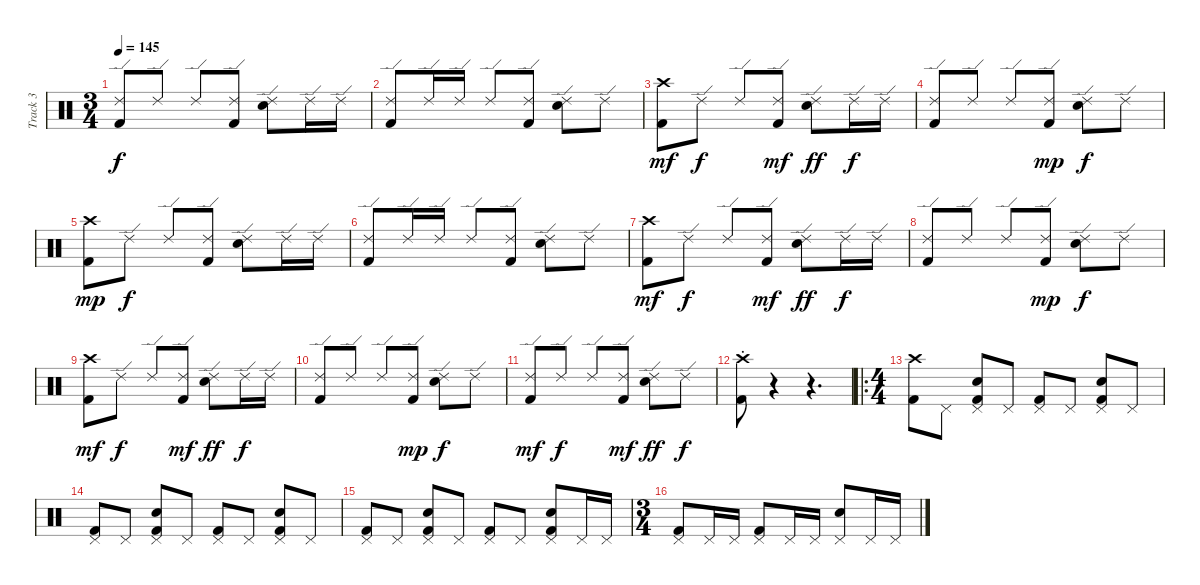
\track ("Track 3" "Track 3") {instrument percussion}
\staff {score}
\articulation defaults
\ts (3 4)
\tempo 145
\clef neutral
\ks c
("Ride (edge) 2" "Kick (hit) 2").8{dy f} "Ride (edge) 2".8 "Ride (edge) 2".8 ("Ride (edge) 2" "Kick (hit) 2").8 ("Ride (edge) 2" "Electric Snare (hit)").8 "Ride (edge) 2".16 "Ride (edge) 2".16 |
("Ride (edge) 2" "Kick (hit) 2").8 "Ride (edge) 2".16 "Ride (edge) 2".16 "Ride (edge) 2".8 ("Ride (edge) 2" "Kick (hit) 2").8 ("Ride (edge) 2" "Electric Snare (hit)").8 "Ride (edge) 2".8 |
("Kick (hit) 2" "Crash high (hit)").8{dy mf} "Ride (edge) 2".8{dy f} "Ride (edge) 2".8 ("Ride (edge) 2" "Kick (hit) 2").8{dy mf} ("Ride (edge) 2" "Electric Snare (hit)").8{dy ff} "Ride (edge) 2".16{dy f} "Ride (edge) 2".16 |
("Ride (edge) 2" "Kick (hit) 2").8 "Ride (edge) 2".8 "Ride (edge) 2".8 ("Ride (edge) 2" "Kick (hit) 2").8{dy mp} ("Ride (edge) 2" "Electric Snare (hit)").8{dy f} "Ride (edge) 2".8 |
("Crash high (hit)" "Kick (hit) 2").8{dy mp} "Ride (edge) 2".8{dy f} "Ride (edge) 2".8 ("Ride (edge) 2" "Kick (hit) 2").8 ("Ride (edge) 2" "Electric Snare (hit)").8 "Ride (edge) 2".16 "Ride (edge) 2".16 |
("Ride (edge) 2" "Kick (hit) 2").8 "Ride (edge) 2".16 "Ride (edge) 2".16 "Ride (edge) 2".8 ("Ride (edge) 2" "Kick (hit) 2").8 ("Ride (edge) 2" "Electric Snare (hit)").8 "Ride (edge) 2".8 |
("Kick (hit) 2" "Crash high (hit)").8{dy mf} "Ride (edge) 2".8{dy f} "Ride (edge) 2".8 ("Ride (edge) 2" "Kick (hit) 2").8{dy mf} ("Ride (edge) 2" "Electric Snare (hit)").8{dy ff} "Ride (edge) 2".16{dy f} "Ride (edge) 2".16 |
("Ride (edge) 2" "Kick (hit) 2").8 "Ride (edge) 2".8 "Ride (edge) 2".8 ("Ride (edge) 2" "Kick (hit) 2").8{dy mp} ("Ride (edge) 2" "Electric Snare (hit)").8{dy f} "Ride (edge) 2".8 |
("Kick (hit) 2" "Crash high (hit)").8{dy mf} "Ride (edge) 2".8{dy f} "Ride (edge) 2".8 ("Ride (edge) 2" "Kick (hit) 2").8{dy mf} ("Ride (edge) 2" "Electric Snare (hit)").8{dy ff} "Ride (edge) 2".16{dy f} "Ride (edge) 2".16 |
("Ride (edge) 2" "Kick (hit) 2").8 "Ride (edge) 2".8 "Ride (edge) 2".8 ("Ride (edge) 2" "Kick (hit) 2").8{dy mp} ("Ride (edge) 2" "Electric Snare (hit)").8{dy f} "Ride (edge) 2".8 |
("Kick (hit) 2" "Ride (edge) 2").8{dy mf} "Ride (edge) 2".8{dy f} "Ride (edge) 2".8 ("Ride (edge) 2" "Kick (hit) 2").8{dy mf} ("Ride (edge) 2" "Electric Snare (hit)").8{dy ff} "Ride (edge) 2".8{dy f} |
("Crash high (hit)"{st} "Kick (hit) 2").8 r.4 r.4{d} |
\ro
\ts (4 4)
("Crash high (hit)" "Kick (hit) 2").8 "Pedal Hi-Hat (hit)".8 ("Pedal Hi-Hat (hit)" "Kick (hit) 2" "Electric Snare (hit)").8 "Pedal Hi-Hat (hit)".8 ("Pedal Hi-Hat (hit)" "Kick (hit) 2").8 "Pedal Hi-Hat (hit)".8 ("Pedal Hi-Hat (hit)" "Kick (hit) 2" "Electric Snare (hit)").8 "Pedal Hi-Hat (hit)".8 |
("Pedal Hi-Hat (hit)" "Kick (hit) 2").8 "Pedal Hi-Hat (hit)".8 ("Pedal Hi-Hat (hit)" "Kick (hit) 2" "Electric Snare (hit)").8 "Pedal Hi-Hat (hit)".8 ("Pedal Hi-Hat (hit)" "Kick (hit) 2").8 "Pedal Hi-Hat (hit)".8 ("Pedal Hi-Hat (hit)" "Kick (hit) 2" "Electric Snare (hit)").8 "Pedal Hi-Hat (hit)".8 |
("Pedal Hi-Hat (hit)" "Kick (hit) 2").8 "Pedal Hi-Hat (hit)".8 ("Pedal Hi-Hat (hit)" "Kick (hit) 2" "Electric Snare (hit)").8 "Pedal Hi-Hat (hit)".8 ("Pedal Hi-Hat (hit)" "Kick (hit) 2").8 "Pedal Hi-Hat (hit)".8 ("Pedal Hi-Hat (hit)" "Kick (hit) 2" "Electric Snare (hit)").8 "Pedal Hi-Hat (hit)".16 "Pedal Hi-Hat (hit)".16 |
\ts (3 4)
("Pedal Hi-Hat (hit)" "Kick (hit) 2").8 "Pedal Hi-Hat (hit)".16 "Pedal Hi-Hat (hit)".16 ("Pedal Hi-Hat (hit)" "Kick (hit) 2").8 "Pedal Hi-Hat (hit)".16 "Pedal Hi-Hat (hit)".16 ("Pedal Hi-Hat (hit)" "Electric Snare (hit)").8 "Pedal Hi-Hat (hit)".16 "Pedal Hi-Hat (hit)".16
